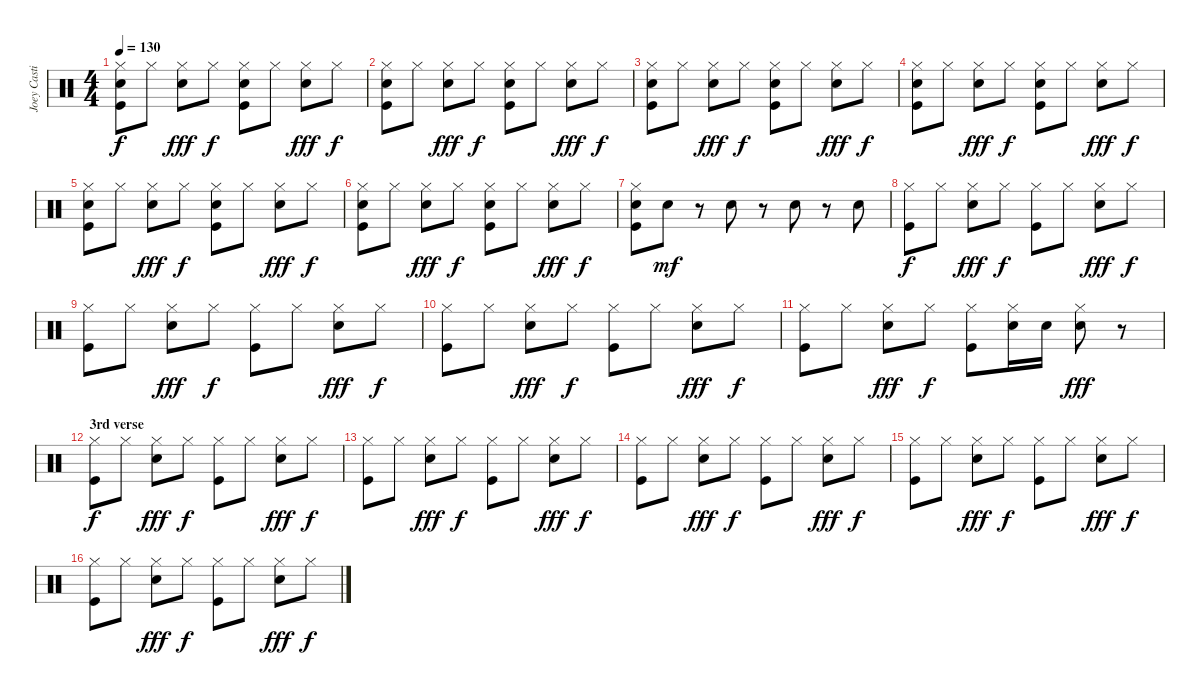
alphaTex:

\track ("Joey Castillo - drums" "Joey Casti") {instrument percussion}
\staff {score}
\articulation defaults
\ts (4 4)
\tempo 130
\clef neutral
\ks c
("Hi-Hat (closed)" "Kick (hit)" "Hand Clap (hit)").8{dy f} "Hi-Hat (closed)".8 ("Hi-Hat (closed)" "Electric Snare (hit)").8{dy fff} "Hi-Hat (closed)".8{dy f} ("Hi-Hat (closed)" "Kick (hit)" "Hand Clap (hit)").8 "Hi-Hat (closed)".8 ("Hi-Hat (closed)" "Electric Snare (hit)").8{dy fff} "Hi-Hat (closed)".8{dy f} |
("Hi-Hat (closed)" "Kick (hit)" "Hand Clap (hit)").8 "Hi-Hat (closed)".8 ("Hi-Hat (closed)" "Electric Snare (hit)").8{dy fff} "Hi-Hat (closed)".8{dy f} ("Hi-Hat (closed)" "Kick (hit)" "Hand Clap (hit)").8 "Hi-Hat (closed)".8 ("Hi-Hat (closed)" "Electric Snare (hit)").8{dy fff} "Hi-Hat (closed)".8{dy f} |
("Hi-Hat (closed)" "Kick (hit)" "Hand Clap (hit)").8 "Hi-Hat (closed)".8 ("Hi-Hat (closed)" "Electric Snare (hit)").8{dy fff} "Hi-Hat (closed)".8{dy f} ("Hi-Hat (closed)" "Kick (hit)" "Hand Clap (hit)").8 "Hi-Hat (closed)".8 ("Hi-Hat (closed)" "Electric Snare (hit)").8{dy fff} "Hi-Hat (closed)".8{dy f} |
("Hi-Hat (closed)" "Kick (hit)" "Hand Clap (hit)").8 "Hi-Hat (closed)".8 ("Hi-Hat (closed)" "Electric Snare (hit)").8{dy fff} "Hi-Hat (closed)".8{dy f} ("Hi-Hat (closed)" "Kick (hit)" "Hand Clap (hit)").8 "Hi-Hat (closed)".8 ("Hi-Hat (closed)" "Electric Snare (hit)").8{dy fff} "Hi-Hat (closed)".8{dy f} |
("Hi-Hat (closed)" "Kick (hit)" "Hand Clap (hit)").8 "Hi-Hat (closed)".8 ("Hi-Hat (closed)" "Electric Snare (hit)").8{dy fff} "Hi-Hat (closed)".8{dy f} ("Hi-Hat (closed)" "Kick (hit)" "Hand Clap (hit)").8 "Hi-Hat (closed)".8 ("Hi-Hat (closed)" "Electric Snare (hit)").8{dy fff} "Hi-Hat (closed)".8{dy f} |
("Hi-Hat (closed)" "Kick (hit)" "Hand Clap (hit)").8 "Hi-Hat (closed)".8 ("Hi-Hat (closed)" "Electric Snare (hit)").8{dy fff} "Hi-Hat (closed)".8{dy f} ("Hi-Hat (closed)" "Kick (hit)" "Hand Clap (hit)").8 "Hi-Hat (closed)".8 ("Hi-Hat (closed)" "Electric Snare (hit)").8{dy fff} "Hi-Hat (closed)".8{dy f} |
("Hi-Hat (closed)" "Kick (hit)" "Hand Clap (hit)").8 "Electric Snare (hit)".8{dy mf} r.8 "Electric Snare (hit)".8 r.8 "Electric Snare (hit)".8 r.8 "Electric Snare (hit)".8 |
("Hi-Hat (closed)" "Kick (hit)").8{dy f} "Hi-Hat (closed)".8 ("Hi-Hat (closed)" "Electric Snare (hit)").8{dy fff} "Hi-Hat (closed)".8{dy f} ("Hi-Hat (closed)" "Kick (hit)").8 "Hi-Hat (closed)".8 ("Hi-Hat (closed)" "Electric Snare (hit)").8{dy fff} "Hi-Hat (closed)".8{dy f} |
("Hi-Hat (closed)" "Kick (hit)").8 "Hi-Hat (closed)".8 ("Hi-Hat (closed)" "Electric Snare (hit)").8{dy fff} "Hi-Hat (closed)".8{dy f} ("Hi-Hat (closed)" "Kick (hit)").8 "Hi-Hat (closed)".8 ("Hi-Hat (closed)" "Electric Snare (hit)").8{dy fff} "Hi-Hat (closed)".8{dy f} |
("Hi-Hat (closed)" "Kick (hit)").8 "Hi-Hat (closed)".8 ("Hi-Hat (closed)" "Electric Snare (hit)").8{dy fff} "Hi-Hat (closed)".8{dy f} ("Hi-Hat (closed)" "Kick (hit)").8 "Hi-Hat (closed)".8 ("Hi-Hat (closed)" "Electric Snare (hit)").8{dy fff} "Hi-Hat (closed)".8{dy f} |
("Hi-Hat (closed)" "Kick (hit)").8 "Hi-Hat (closed)".8 ("Hi-Hat (closed)" "Electric Snare (hit)").8{dy fff} "Hi-Hat (closed)".8{dy f} ("Hi-Hat (closed)" "Kick (hit)").8 ("Hi-Hat (closed)" "Electric Snare (hit)").16 "Electric Snare (hit)".16 ("Hi-Hat (closed)" "Electric Snare (hit)").8{dy fff} r.8 |
\section ("" "3rd verse")
("Hi-Hat (closed)" "Kick (hit)").8{dy f} "Hi-Hat (closed)".8 ("Hi-Hat (closed)" "Electric Snare (hit)").8{dy fff} "Hi-Hat (closed)".8{dy f} ("Hi-Hat (closed)" "Kick (hit)").8 "Hi-Hat (closed)".8 ("Hi-Hat (closed)" "Electric Snare (hit)").8{dy fff} "Hi-Hat (closed)".8{dy f} |
("Hi-Hat (closed)" "Kick (hit)").8 "Hi-Hat (closed)".8 ("Hi-Hat (closed)" "Electric Snare (hit)").8{dy fff} "Hi-Hat (closed)".8{dy f} ("Hi-Hat (closed)" "Kick (hit)").8 "Hi-Hat (closed)".8 ("Hi-Hat (closed)" "Electric Snare (hit)").8{dy fff} "Hi-Hat (closed)".8{dy f} |
("Hi-Hat (closed)" "Kick (hit)").8 "Hi-Hat (closed)".8 ("Hi-Hat (closed)" "Electric Snare (hit)").8{dy fff} "Hi-Hat (closed)".8{dy f} ("Hi-Hat (closed)" "Kick (hit)").8 "Hi-Hat (closed)".8 ("Hi-Hat (closed)" "Electric Snare (hit)").8{dy fff} "Hi-Hat (closed)".8{dy f} |
("Hi-Hat (closed)" "Kick (hit)").8 "Hi-Hat (closed)".8 ("Hi-Hat (closed)" "Electric Snare (hit)").8{dy fff} "Hi-Hat (closed)".8{dy f} ("Hi-Hat (closed)" "Kick (hit)").8 "Hi-Hat (closed)".8 ("Hi-Hat (closed)" "Electric Snare (hit)").8{dy fff} "Hi-Hat (closed)".8{dy f} |
("Hi-Hat (closed)" "Kick (hit)").8 "Hi-Hat (closed)".8 ("Hi-Hat (closed)" "Electric Snare (hit)").8{dy fff} "Hi-Hat (closed)".8{dy f} ("Hi-Hat (closed)" "Kick (hit)").8 "Hi-Hat (closed)".8 ("Hi-Hat (closed)" "Electric Snare (hit)").8{dy fff} "Hi-Hat (closed)".8{dy f}
